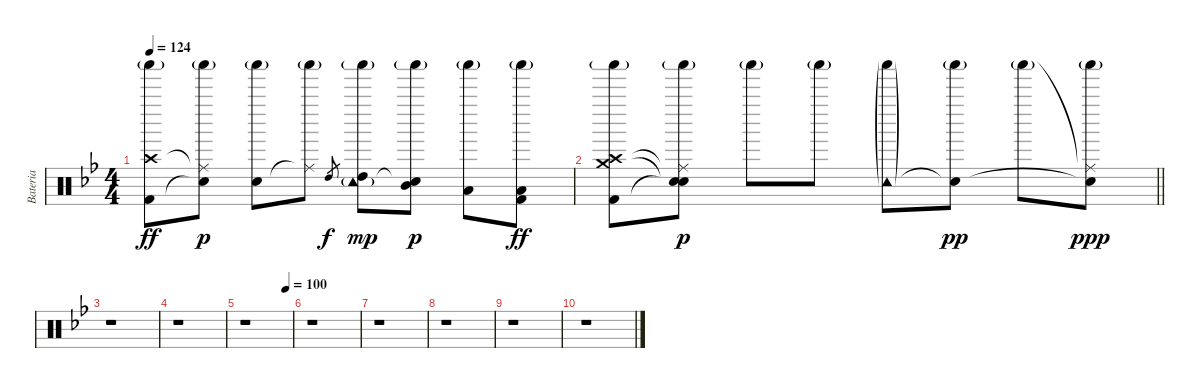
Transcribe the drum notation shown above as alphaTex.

\track ("Bateria" "Bateria") {instrument percussion}
\staff {score}
\articulation defaults
\ts (4 4)
\tempo 124
\clef neutral
\ks bb
("Crash high (hit)" "Shaker (hit)"{g} "Kick (hit) 2").8{dy ff} ("Ride (middle)"{t} "Shaker (hit)"{g} "Snare (hit)"{t}).8{dy p} ("Electric Snare (hit)" "Shaker (hit)"{g}).8 ("Ride (middle)"{t} "Shaker (hit)"{g}).8 "High Tom (hit)".8{gr dy f} ("High Tom (hit)" "Shaker (hit)"{g} "Tambourine (hit)"{g}).8{dy mp} ("Mid Tom (hit)" "Shaker (hit)"{g} "Snare (hit)"{t}).8{dy p} ("Low Tom (hit)" "Shaker (hit)"{g}).8 ("Low Tom (hit)" "Shaker (hit)"{g} "Kick (hit) 2").8{dy ff} |
\barLineRight lightlight
("Crash high (hit)" "Crash medium (hit)" "Shaker (hit)"{g} "Kick (hit) 2").8 ("Ride (middle)"{t} "Snare (hit)"{t} "Shaker (hit)"{g} "Snare (hit)"{t}).8{dy p} "Shaker (hit)"{g}.8 "Shaker (hit)"{g}.8 ("Shaker (hit)"{g} "Tambourine (hit)"{g}).8 ("Shaker (hit)"{g} "Snare (hit)"{t}).8{dy pp} "Shaker (hit)"{g}.8 ("Ride (middle)"{t} "Snare (hit)"{t} "Shaker (hit)"{g}).8{dy ppp} |
r.1 |
r.1 |
\tempo (100 0.875)
r.1 |
r.1 |
r.1 |
r.1 |
r.1 |
r.1
